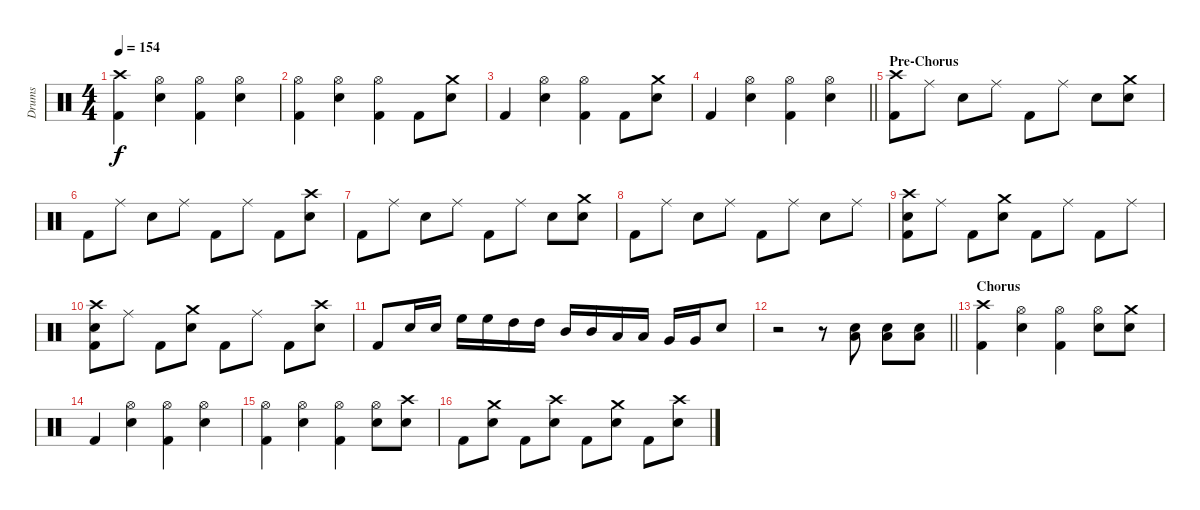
\track ("Drums" "Drums") {instrument percussion}
\staff {score}
\articulation defaults
\ts (4 4)
\tempo 154
\clef neutral
\ks c
("Crash high (hit)" "Kick (hit) 2").4{dy f} ("Hi-Hat (open)" "Snare (hit) 2").4 ("Hi-Hat (open)" "Kick (hit) 2").4 ("Hi-Hat (open)" "Snare (hit) 2").4 |
("Hi-Hat (open)" "Kick (hit) 2").4 ("Hi-Hat (open)" "Snare (hit) 2").4 ("Hi-Hat (open)" "Kick (hit) 2").4 "Kick (hit) 2".8 ("Crash medium (hit)" "Snare (hit) 2").8 |
"Kick (hit) 2".4 ("Hi-Hat (open)" "Snare (hit) 2").4 ("Hi-Hat (open)" "Kick (hit) 2").4 "Kick (hit) 2".8 ("Crash medium (hit)" "Snare (hit) 2").8 |
\barLineRight lightlight "Kick (hit) 2".4
("Hi-Hat (open)" "Snare (hit) 2").4 ("Hi-Hat (open)" "Kick (hit) 2").4 ("Hi-Hat (open)" "Snare (hit) 2").4 |
\section ("" "Pre-Chorus")
("Crash high (hit)" "Kick (hit) 2").8 "Ride (middle)".8 "Snare (hit) 2".8 "Ride (middle)".8 "Kick (hit) 2".8 "Ride (middle)".8 "Snare (hit) 2".8 ("Crash medium (hit)" "Snare (hit) 2").8 |
"Kick (hit) 2".8 "Ride (middle)".8 "Snare (hit) 2".8 "Ride (middle)".8 "Kick (hit) 2".8 "Ride (middle)".8 "Kick (hit) 2".8 ("Crash high (hit)" "Snare (hit) 2").8 |
"Kick (hit) 2".8 "Ride (middle)".8 "Snare (hit) 2".8 "Ride (middle)".8 "Kick (hit) 2".8 "Ride (middle)".8 "Snare (hit) 2".8 ("Crash medium (hit)" "Snare (hit) 2").8 |
"Kick (hit) 2".8 "Ride (middle)".8 "Snare (hit) 2".8 "Ride (middle)".8 "Kick (hit) 2".8 "Ride (middle)".8 "Snare (hit) 2".8 "Ride (middle)".8 |
("Crash high (hit)" "Snare (hit) 2" "Kick (hit) 2").8 "Ride (middle)".8 "Kick (hit) 2".8 ("Crash medium (hit)" "Snare (hit) 2").8 "Kick (hit) 2".8 "Ride (middle)".8 "Kick (hit) 2".8 "Ride (middle)".8 |
("Crash high (hit)" "Snare (hit) 2" "Kick (hit) 2").8 "Ride (middle)".8 "Kick (hit) 2".8 ("Crash medium (hit)" "Snare (hit) 2").8 "Kick (hit) 2".8 "Ride (middle)".8 "Kick (hit) 2".8 ("Crash high (hit)" "Snare (hit) 2").8 |
"Kick (hit) 2".8 "Snare (hit) 2".16 "Snare (hit) 2".16 "High Floor Tom (hit)".16 "High Floor Tom (hit)".16 "High Tom (hit)".16 "High Tom (hit)".16 "Mid Tom (hit)".16 "Mid Tom (hit)".16 "Low Tom (hit)".16 "Low Tom (hit)".16 "Very Low Tom (hit)".16 "Very Low Tom (hit)".16 "Snare (hit) 2".8 |
\barLineRight lightlight
r.2 r.8 ("Snare (hit) 2" "Low Tom (hit)").8 ("Snare (hit) 2" "Low Tom (hit)").8 ("Snare (hit) 2" "Low Tom (hit)").8 |
\section ("" "Chorus")
("Crash high (hit)" "Kick (hit) 2").4 ("Hi-Hat (open)" "Snare (hit) 2").4 ("Hi-Hat (open)" "Kick (hit) 2").4 ("Hi-Hat (open)" "Snare (hit) 2").8 ("Crash medium (hit)" "Snare (hit) 2").8 |
"Kick (hit) 2".4 ("Hi-Hat (open)" "Snare (hit) 2").4 ("Hi-Hat (open)" "Kick (hit) 2").4 ("Hi-Hat (open)" "Snare (hit) 2").4 |
("Hi-Hat (open)" "Kick (hit) 2").4 ("Hi-Hat (open)" "Snare (hit) 2").4 ("Hi-Hat (open)" "Kick (hit) 2").4 ("Hi-Hat (open)" "Snare (hit) 2").8 ("Crash high (hit)" "Snare (hit) 2").8 |
"Kick (hit) 2".8 ("Crash medium (hit)" "Snare (hit) 2").8 "Kick (hit) 2".8 ("Crash high (hit)" "Snare (hit) 2").8 "Kick (hit) 2".8 ("Crash medium (hit)" "Snare (hit) 2").8 "Kick (hit) 2".8 ("Crash high (hit)" "Snare (hit) 2").8
